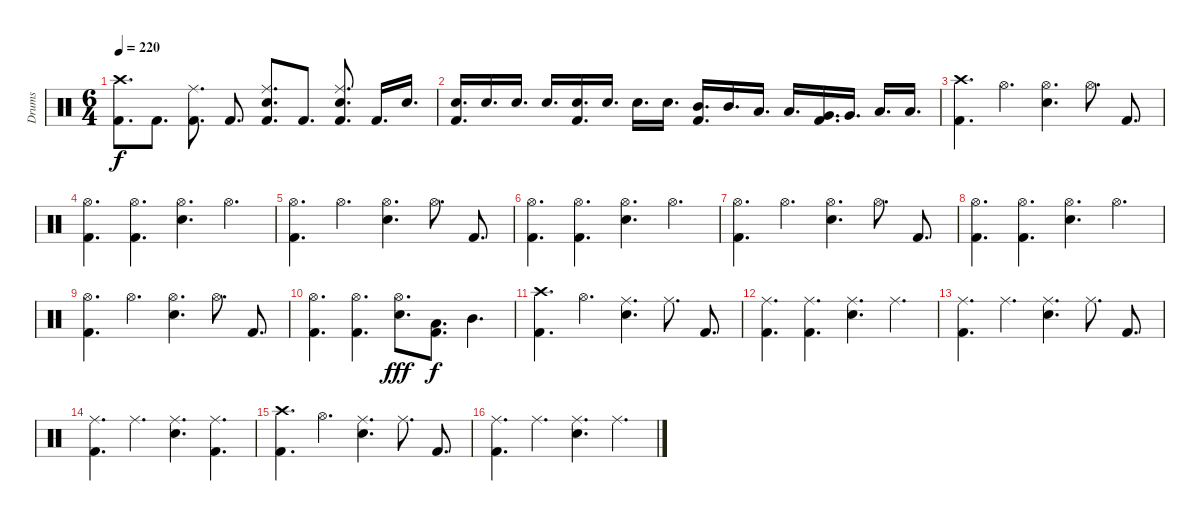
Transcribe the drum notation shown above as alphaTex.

\track ("Drums" "Drums") {instrument percussion}
\staff {score}
\articulation defaults
\ts (6 4)
\tempo 220
\clef neutral
\ks c
("Crash high (hit)" "Kick (hit) 2").8{d dy f} "Kick (hit) 2".8{d} ("Ride (middle)" "Kick (hit) 2").8{d} "Kick (hit) 2".8{d} ("Ride (middle)" "Electric Snare (hit)" "Kick (hit) 2").8{d} "Kick (hit) 2".8{d} ("Ride (middle)" "Electric Snare (hit)" "Kick (hit) 2").8{d} "Kick (hit) 2".16{d} "Electric Snare (hit)".16{d} |
("Electric Snare (hit)" "Kick (hit) 2").16{d} "Electric Snare (hit)".16{d} "Electric Snare (hit)".16{d} "Electric Snare (hit)".16{d} ("Electric Snare (hit)" "Kick (hit) 2").16{d} "Electric Snare (hit)".16{d} "Electric Snare (hit)".16{d} "Electric Snare (hit)".16{d} ("Mid Tom (hit)" "Kick (hit) 2").16{d} "Mid Tom (hit)".16{d} "Low Tom (hit)".16{d} "Low Tom (hit)".16{d} ("Very Low Tom (hit)" "Kick (hit) 2").16{d} "Very Low Tom (hit)".16{d} "Low Floor Tom (hit)".16{d} "Low Floor Tom (hit)".16{d} |
("Crash high (hit)" "Kick (hit) 2").4{d} "Hi-Hat (open)".4{d} ("Hi-Hat (open)" "Electric Snare (hit)").4{d} "Hi-Hat (open)".8{d} "Kick (hit) 2".8{d} |
("Hi-Hat (open)" "Kick (hit) 2").4{d} ("Hi-Hat (open)" "Kick (hit) 2").4{d} ("Hi-Hat (open)" "Electric Snare (hit)").4{d} "Hi-Hat (open)".4{d} |
("Hi-Hat (open)" "Kick (hit) 2").4{d} "Hi-Hat (open)".4{d} ("Hi-Hat (open)" "Electric Snare (hit)").4{d} "Hi-Hat (open)".8{d} "Kick (hit) 2".8{d} |
("Hi-Hat (open)" "Kick (hit) 2").4{d} ("Hi-Hat (open)" "Kick (hit) 2").4{d} ("Hi-Hat (open)" "Electric Snare (hit)").4{d} "Hi-Hat (open)".4{d} |
("Hi-Hat (open)" "Kick (hit) 2").4{d} "Hi-Hat (open)".4{d} ("Hi-Hat (open)" "Electric Snare (hit)").4{d} "Hi-Hat (open)".8{d} "Kick (hit) 2".8{d} |
("Hi-Hat (open)" "Kick (hit) 2").4{d} ("Hi-Hat (open)" "Kick (hit) 2").4{d} ("Hi-Hat (open)" "Electric Snare (hit)").4{d} "Hi-Hat (open)".4{d} |
("Hi-Hat (open)" "Kick (hit) 2").4{d} "Hi-Hat (open)".4{d} ("Hi-Hat (open)" "Electric Snare (hit)").4{d} "Hi-Hat (open)".8{d} "Kick (hit) 2".8{d} |
("Hi-Hat (open)" "Kick (hit) 2").4{d} ("Hi-Hat (open)" "Kick (hit) 2").4{d} ("Hi-Hat (open)" "Electric Snare (hit)").8{d dy fff} ("Low Tom (hit)" "Kick (hit) 2").8{d dy f} "Mid Tom (hit)".4{d} |
("Crash high (hit)" "Kick (hit) 2").4{d} "Hi-Hat (open)".4{d} ("Ride (middle)" "Electric Snare (hit)").4{d} "Ride (middle)".8{d} "Kick (hit) 2".8{d} |
("Ride (middle)" "Kick (hit) 2").4{d} ("Ride (middle)" "Kick (hit) 2").4{d} ("Ride (middle)" "Electric Snare (hit)").4{d} "Ride (middle)".4{d} |
("Ride (middle)" "Kick (hit) 2").4{d} "Ride (middle)".4{d} ("Ride (middle)" "Electric Snare (hit)").4{d} "Ride (middle)".8{d} "Kick (hit) 2".8{d} |
("Ride (middle)" "Kick (hit) 2").4{d} "Ride (middle)".4{d} ("Ride (middle)" "Electric Snare (hit)").4{d} ("Ride (middle)" "Kick (hit) 2").4{d} |
("Crash high (hit)" "Kick (hit) 2").4{d} "Hi-Hat (open)".4{d} ("Ride (middle)" "Electric Snare (hit)").4{d} "Ride (middle)".8{d} "Kick (hit) 2".8{d} |
("Ride (middle)" "Kick (hit) 2").4{d} "Ride (middle)".4{d} ("Ride (middle)" "Electric Snare (hit)").4{d} "Ride (middle)".4{d}
